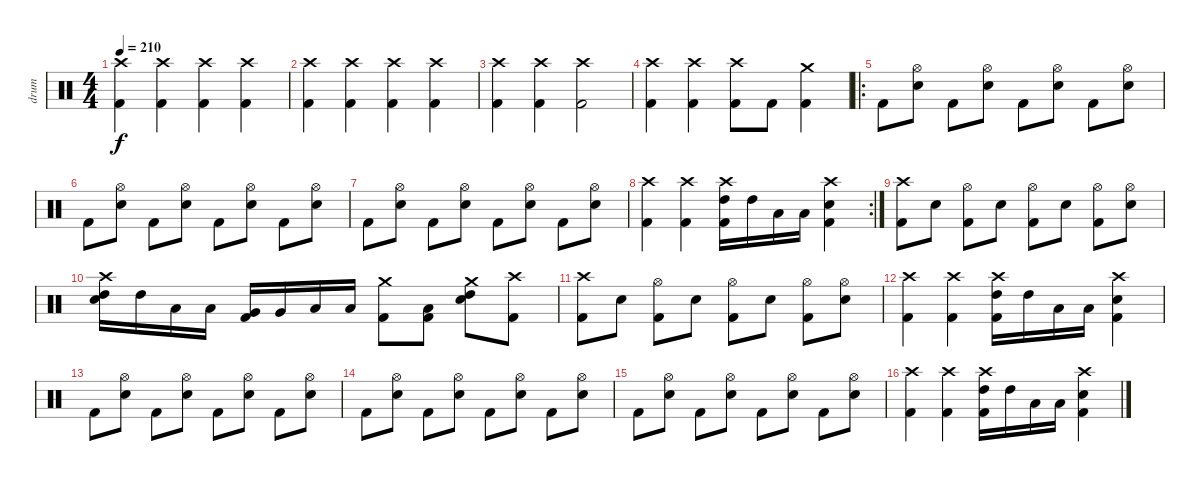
\track ("drum" "drum") {instrument percussion}
\staff {score}
\articulation defaults
\ts (4 4)
\tempo 210
\clef neutral
\ks c
("Crash high (hit)" "Kick (hit) 2").4{dy f} ("Crash high (hit)" "Kick (hit) 2").4 ("Crash high (hit)" "Kick (hit) 2").4 ("Crash high (hit)" "Kick (hit) 2").4 |
("Crash high (hit)" "Kick (hit) 2").4 ("Crash high (hit)" "Kick (hit) 2").4 ("Crash high (hit)" "Kick (hit) 2").4 ("Crash high (hit)" "Kick (hit) 2").4 |
("Crash high (hit)" "Kick (hit) 2").4 ("Crash high (hit)" "Kick (hit) 2").4 ("Crash high (hit)" "Kick (hit) 2").2 |
("Crash high (hit)" "Kick (hit) 2").4 ("Crash high (hit)" "Kick (hit) 2").4 ("Crash high (hit)" "Kick (hit) 2").8 "Kick (hit) 2".8 ("Crash medium (hit)" "Kick (hit) 2").4 |
\ro "Kick (hit) 2".8
("Hi-Hat (open)" "Electric Snare (hit)").8 "Kick (hit) 2".8 ("Hi-Hat (open)" "Electric Snare (hit)").8 "Kick (hit) 2".8 ("Hi-Hat (open)" "Electric Snare (hit)").8 "Kick (hit) 2".8 ("Hi-Hat (open)" "Electric Snare (hit)").8 |
"Kick (hit) 2".8 ("Hi-Hat (open)" "Electric Snare (hit)").8 "Kick (hit) 2".8 ("Hi-Hat (open)" "Electric Snare (hit)").8 "Kick (hit) 2".8 ("Hi-Hat (open)" "Electric Snare (hit)").8 "Kick (hit) 2".8 ("Hi-Hat (open)" "Electric Snare (hit)").8 |
"Kick (hit) 2".8 ("Hi-Hat (open)" "Electric Snare (hit)").8 "Kick (hit) 2".8 ("Hi-Hat (open)" "Electric Snare (hit)").8 "Kick (hit) 2".8 ("Hi-Hat (open)" "Electric Snare (hit)").8 "Kick (hit) 2".8 ("Hi-Hat (open)" "Electric Snare (hit)").8 |
\rc 2
("Crash high (hit)" "Kick (hit) 2").4 ("Crash high (hit)" "Kick (hit) 2").4 ("Crash high (hit)" "High Tom (hit)" "Kick (hit) 2").16 "High Tom (hit)".16 "Low Tom (hit)".16 "Low Tom (hit)".16 ("Crash high (hit)" "Electric Snare (hit)" "Kick (hit) 2").4 |
("Crash high (hit)" "Kick (hit) 2").8 "Electric Snare (hit)".8 ("Hi-Hat (open)" "Kick (hit) 2").8 "Electric Snare (hit)".8 ("Hi-Hat (open)" "Kick (hit) 2").8 "Electric Snare (hit)".8 ("Hi-Hat (open)" "Kick (hit) 2").8 ("Hi-Hat (open)" "Electric Snare (hit)").8 |
("Crash high (hit)" "High Tom (hit)" "Electric Snare (hit)").16 "High Tom (hit)".16 "Low Tom (hit)".16 "Low Tom (hit)".16 ("Very Low Tom (hit)" "Kick (hit) 2").16 "Very Low Tom (hit)".16 "Low Tom (hit)".16 "Low Tom (hit)".16 ("Crash medium (hit)" "Kick (hit) 2").8 ("Low Tom (hit)" "Kick (hit) 2").8 ("Crash medium (hit)" "High Tom (hit)" "Electric Snare (hit)").8 ("Crash high (hit)" "Kick (hit) 2").8 |
("Crash high (hit)" "Kick (hit) 2").8 "Electric Snare (hit)".8 ("Hi-Hat (open)" "Kick (hit) 2").8 "Electric Snare (hit)".8 ("Hi-Hat (open)" "Kick (hit) 2").8 "Electric Snare (hit)".8 ("Hi-Hat (open)" "Kick (hit) 2").8 ("Hi-Hat (open)" "Electric Snare (hit)").8 |
("Crash high (hit)" "Kick (hit) 2").4 ("Crash high (hit)" "Kick (hit) 2").4 ("Crash high (hit)" "High Tom (hit)" "Kick (hit) 2").16 "High Tom (hit)".16 "Low Tom (hit)".16 "Low Tom (hit)".16 ("Crash high (hit)" "Electric Snare (hit)" "Kick (hit) 2").4 |
"Kick (hit) 2".8 ("Hi-Hat (open)" "Electric Snare (hit)").8 "Kick (hit) 2".8 ("Hi-Hat (open)" "Electric Snare (hit)").8 "Kick (hit) 2".8 ("Hi-Hat (open)" "Electric Snare (hit)").8 "Kick (hit) 2".8 ("Hi-Hat (open)" "Electric Snare (hit)").8 |
"Kick (hit) 2".8 ("Hi-Hat (open)" "Electric Snare (hit)").8 "Kick (hit) 2".8 ("Hi-Hat (open)" "Electric Snare (hit)").8 "Kick (hit) 2".8 ("Hi-Hat (open)" "Electric Snare (hit)").8 "Kick (hit) 2".8 ("Hi-Hat (open)" "Electric Snare (hit)").8 |
"Kick (hit) 2".8 ("Hi-Hat (open)" "Electric Snare (hit)").8 "Kick (hit) 2".8 ("Hi-Hat (open)" "Electric Snare (hit)").8 "Kick (hit) 2".8 ("Hi-Hat (open)" "Electric Snare (hit)").8 "Kick (hit) 2".8 ("Hi-Hat (open)" "Electric Snare (hit)").8 |
("Crash high (hit)" "Kick (hit) 2").4 ("Crash high (hit)" "Kick (hit) 2").4 ("Crash high (hit)" "High Tom (hit)" "Kick (hit) 2").16 "High Tom (hit)".16 "Low Tom (hit)".16 "Low Tom (hit)".16 ("Crash high (hit)" "Electric Snare (hit)" "Kick (hit) 2").4
